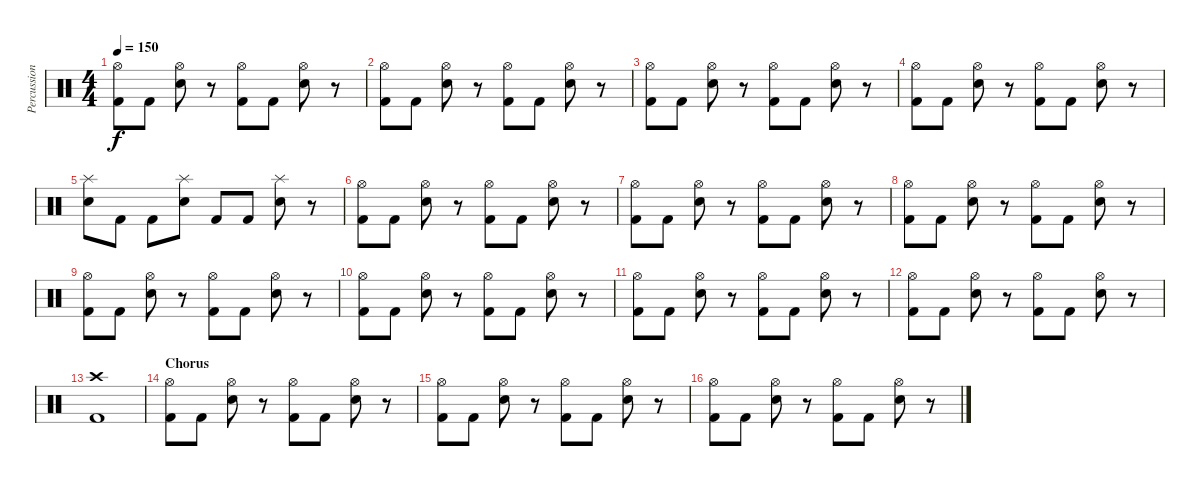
\track ("Percussion" "Percussion") {instrument percussion}
\staff {score}
\articulation defaults
\ts (4 4)
\tempo 150
\clef neutral
\ks c
("Hi-Hat (open)" "Kick (hit) 2").8{dy f} "Kick (hit) 2".8 ("Hi-Hat (open)" "Electric Snare (hit)").8 r.8 ("Hi-Hat (open)" "Kick (hit) 2").8 "Kick (hit) 2".8 ("Hi-Hat (open)" "Electric Snare (hit)").8 r.8 |
("Hi-Hat (open)" "Kick (hit) 2").8 "Kick (hit) 2".8 ("Hi-Hat (open)" "Electric Snare (hit)").8 r.8 ("Hi-Hat (open)" "Kick (hit) 2").8 "Kick (hit) 2".8 ("Hi-Hat (open)" "Electric Snare (hit)").8 r.8 |
("Hi-Hat (open)" "Kick (hit) 2").8 "Kick (hit) 2".8 ("Hi-Hat (open)" "Electric Snare (hit)").8 r.8 ("Hi-Hat (open)" "Kick (hit) 2").8 "Kick (hit) 2".8 ("Hi-Hat (open)" "Electric Snare (hit)").8 r.8 |
("Hi-Hat (open)" "Kick (hit) 2").8 "Kick (hit) 2".8 ("Hi-Hat (open)" "Electric Snare (hit)").8 r.8 ("Hi-Hat (open)" "Kick (hit) 2").8 "Kick (hit) 2".8 ("Hi-Hat (open)" "Electric Snare (hit)").8 r.8 |
("Splash (hit)" "Electric Snare (hit)").8 "Kick (hit) 2".8 "Kick (hit) 2".8 ("Splash (hit)" "Electric Snare (hit)").8 "Kick (hit) 2".8 "Kick (hit) 2".8 ("Splash (hit)" "Electric Snare (hit)").8 r.8 |
("Hi-Hat (open)" "Kick (hit) 2").8 "Kick (hit) 2".8 ("Hi-Hat (open)" "Electric Snare (hit)").8 r.8 ("Hi-Hat (open)" "Kick (hit) 2").8 "Kick (hit) 2".8 ("Hi-Hat (open)" "Electric Snare (hit)").8 r.8 |
("Hi-Hat (open)" "Kick (hit) 2").8 "Kick (hit) 2".8 ("Hi-Hat (open)" "Electric Snare (hit)").8 r.8 ("Hi-Hat (open)" "Kick (hit) 2").8 "Kick (hit) 2".8 ("Hi-Hat (open)" "Electric Snare (hit)").8 r.8 |
("Hi-Hat (open)" "Kick (hit) 2").8 "Kick (hit) 2".8 ("Hi-Hat (open)" "Electric Snare (hit)").8 r.8 ("Hi-Hat (open)" "Kick (hit) 2").8 "Kick (hit) 2".8 ("Hi-Hat (open)" "Electric Snare (hit)").8 r.8 |
("Hi-Hat (open)" "Kick (hit) 2").8 "Kick (hit) 2".8 ("Hi-Hat (open)" "Electric Snare (hit)").8 r.8 ("Hi-Hat (open)" "Kick (hit) 2").8 "Kick (hit) 2".8 ("Hi-Hat (open)" "Electric Snare (hit)").8 r.8 |
("Hi-Hat (open)" "Kick (hit) 2").8 "Kick (hit) 2".8 ("Hi-Hat (open)" "Electric Snare (hit)").8 r.8 ("Hi-Hat (open)" "Kick (hit) 2").8 "Kick (hit) 2".8 ("Hi-Hat (open)" "Electric Snare (hit)").8 r.8 |
("Hi-Hat (open)" "Kick (hit) 2").8 "Kick (hit) 2".8 ("Hi-Hat (open)" "Electric Snare (hit)").8 r.8 ("Hi-Hat (open)" "Kick (hit) 2").8 "Kick (hit) 2".8 ("Hi-Hat (open)" "Electric Snare (hit)").8 r.8 |
("Hi-Hat (open)" "Kick (hit) 2").8 "Kick (hit) 2".8 ("Hi-Hat (open)" "Electric Snare (hit)").8 r.8 ("Hi-Hat (open)" "Kick (hit) 2").8 "Kick (hit) 2".8 ("Hi-Hat (open)" "Electric Snare (hit)").8 r.8 |
("Crash high (hit)" "Kick (hit) 2").1 |
\section ("" "Chorus")
("Hi-Hat (open)" "Kick (hit) 2").8 "Kick (hit) 2".8 ("Hi-Hat (open)" "Electric Snare (hit)").8 r.8 ("Hi-Hat (open)" "Kick (hit) 2").8 "Kick (hit) 2".8 ("Hi-Hat (open)" "Electric Snare (hit)").8 r.8 |
("Hi-Hat (open)" "Kick (hit) 2").8 "Kick (hit) 2".8 ("Hi-Hat (open)" "Electric Snare (hit)").8 r.8 ("Hi-Hat (open)" "Kick (hit) 2").8 "Kick (hit) 2".8 ("Hi-Hat (open)" "Electric Snare (hit)").8 r.8 |
("Hi-Hat (open)" "Kick (hit) 2").8 "Kick (hit) 2".8 ("Hi-Hat (open)" "Electric Snare (hit)").8 r.8 ("Hi-Hat (open)" "Kick (hit) 2").8 "Kick (hit) 2".8 ("Hi-Hat (open)" "Electric Snare (hit)").8 r.8
